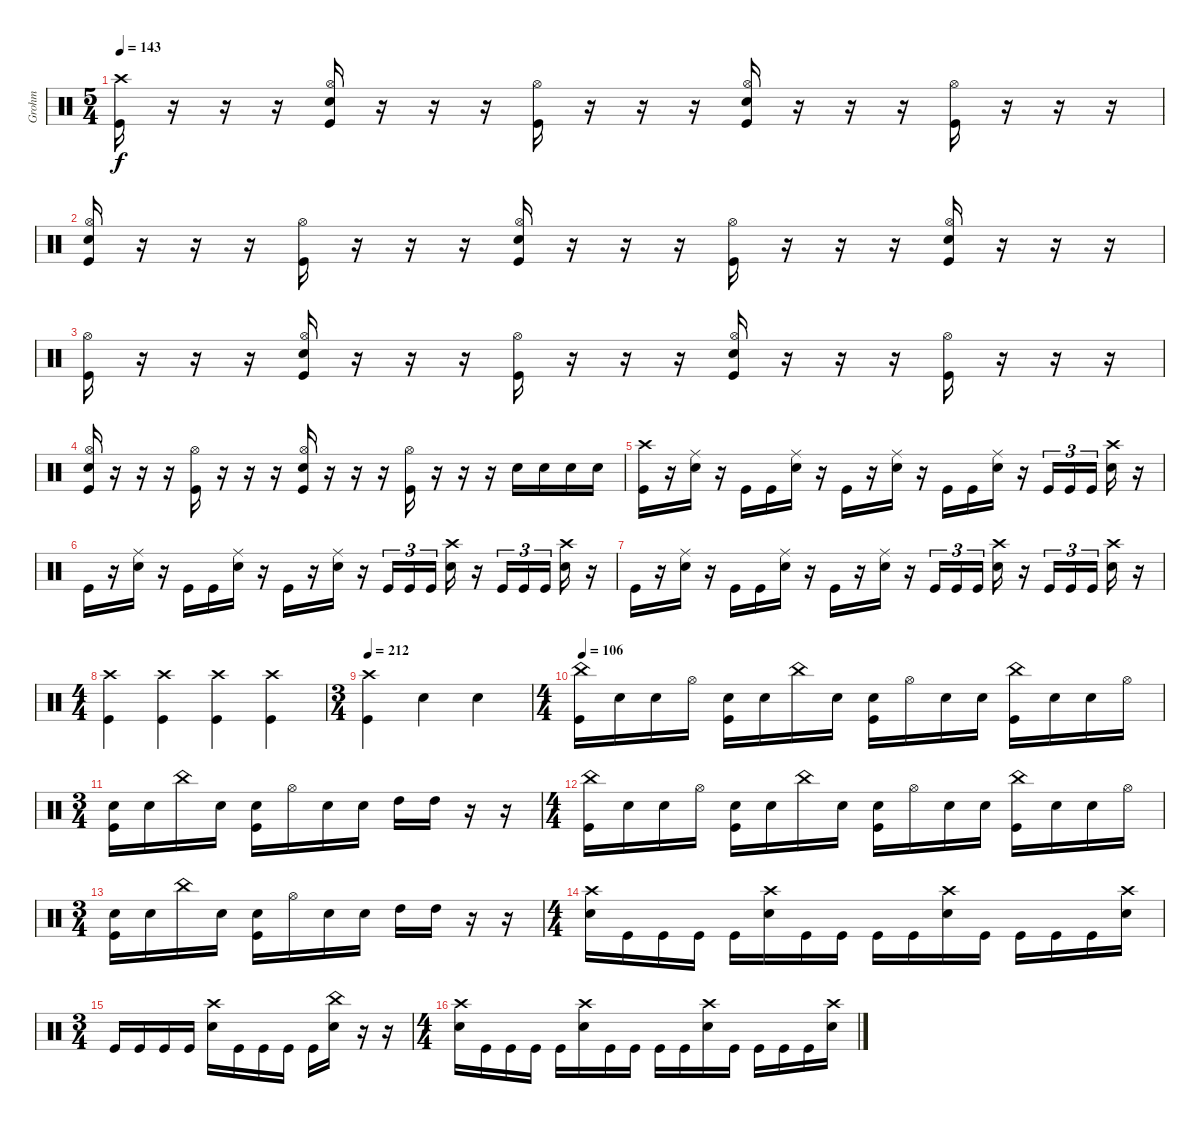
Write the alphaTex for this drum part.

\track ("Grohm" "Grohm") {instrument percussion}
\staff {score}
\articulation defaults
\ts (5 4)
\tempo 143
\clef neutral
\ks c
("Crash high (hit)" "Kick (hit)").16{dy f} r.16 r.16 r.16 ("Hi-Hat (open)" "Snare (hit) 2" "Kick (hit)").16 r.16 r.16 r.16 ("Hi-Hat (open)" "Kick (hit)").16 r.16 r.16 r.16 ("Hi-Hat (open)" "Snare (hit) 2" "Kick (hit)").16 r.16 r.16 r.16 ("Hi-Hat (open)" "Kick (hit)").16 r.16 r.16 r.16 |
("Hi-Hat (open)" "Snare (hit) 2" "Kick (hit)").16 r.16 r.16 r.16 ("Hi-Hat (open)" "Kick (hit)").16 r.16 r.16 r.16 ("Hi-Hat (open)" "Snare (hit) 2" "Kick (hit)").16 r.16 r.16 r.16 ("Hi-Hat (open)" "Kick (hit)").16 r.16 r.16 r.16 ("Hi-Hat (open)" "Snare (hit) 2" "Kick (hit)").16 r.16 r.16 r.16 |
("Hi-Hat (open)" "Kick (hit)").16 r.16 r.16 r.16 ("Hi-Hat (open)" "Snare (hit) 2" "Kick (hit)").16 r.16 r.16 r.16 ("Hi-Hat (open)" "Kick (hit)").16 r.16 r.16 r.16 ("Hi-Hat (open)" "Snare (hit) 2" "Kick (hit)").16 r.16 r.16 r.16 ("Hi-Hat (open)" "Kick (hit)").16 r.16 r.16 r.16 |
("Hi-Hat (open)" "Snare (hit) 2" "Kick (hit)").16 r.16 r.16 r.16 ("Hi-Hat (open)" "Kick (hit)").16 r.16 r.16 r.16 ("Hi-Hat (open)" "Snare (hit) 2" "Kick (hit)").16 r.16 r.16 r.16 ("Hi-Hat (open)" "Kick (hit)").16 r.16 r.16 r.16 "Snare (hit) 2".16 "Snare (hit) 2".16 "Snare (hit) 2".16 "Snare (hit) 2".16 |
("Crash high (hit)" "Kick (hit)").16 r.16 ("Ride (middle)" "Snare (hit) 2").16 r.16 "Kick (hit)".16 "Kick (hit)".16 ("Ride (middle)" "Snare (hit) 2").16 r.16 "Kick (hit)".16 r.16 ("Ride (middle)" "Snare (hit) 2").16 r.16 "Kick (hit)".16 "Kick (hit)".16 ("Ride (middle)" "Snare (hit) 2").16 r.16 "Kick (hit)".16{tu (3 2)} "Kick (hit)".16{tu (3 2)} "Kick (hit)".16{tu (3 2) beam splitsecondary} ("Crash high (hit)" "Snare (hit) 2").16 r.16 |
"Kick (hit)".16 r.16 ("Ride (middle)" "Snare (hit) 2").16 r.16 "Kick (hit)".16 "Kick (hit)".16 ("Ride (middle)" "Snare (hit) 2").16 r.16 "Kick (hit)".16 r.16 ("Ride (middle)" "Snare (hit) 2").16 r.16 "Kick (hit)".16{tu (3 2)} "Kick (hit)".16{tu (3 2)} "Kick (hit)".16{tu (3 2) beam splitsecondary} ("Crash high (hit)" "Snare (hit) 2").16 r.16 "Kick (hit)".16{tu (3 2)} "Kick (hit)".16{tu (3 2)} "Kick (hit)".16{tu (3 2) beam splitsecondary} ("Crash high (hit)" "Snare (hit) 2").16 r.16 |
"Kick (hit)".16 r.16 ("Ride (middle)" "Snare (hit) 2").16 r.16 "Kick (hit)".16 "Kick (hit)".16 ("Ride (middle)" "Snare (hit) 2").16 r.16 "Kick (hit)".16 r.16 ("Ride (middle)" "Snare (hit) 2").16 r.16 "Kick (hit)".16{tu (3 2)} "Kick (hit)".16{tu (3 2)} "Kick (hit)".16{tu (3 2) beam splitsecondary} ("Crash high (hit)" "Snare (hit) 2").16 r.16 "Kick (hit)".16{tu (3 2)} "Kick (hit)".16{tu (3 2)} "Kick (hit)".16{tu (3 2) beam splitsecondary} ("Crash high (hit)" "Snare (hit) 2").16 r.16 |
\ts (4 4)
("Crash high (hit)" "Kick (hit)").4 ("Crash high (hit)" "Kick (hit)").4 ("Crash high (hit)" "Kick (hit)").4 ("Crash high (hit)" "Kick (hit)").4 |
\ts (3 4)
\tempo 212
("Crash high (hit)" "Kick (hit)").4 "Snare (hit) 2".4 "Snare (hit) 2".4 |
\ts (4 4)
\tempo 106
("China (hit)" "Kick (hit)").16 "Snare (hit) 2".16 "Snare (hit) 2".16 "Hi-Hat (open)".16 ("Snare (hit) 2" "Kick (hit)").16 "Snare (hit) 2".16 "China (hit)".16 "Snare (hit) 2".16 ("Snare (hit) 2" "Kick (hit)").16 "Hi-Hat (open)".16 "Snare (hit) 2".16 "Snare (hit) 2".16 ("China (hit)" "Kick (hit)").16 "Snare (hit) 2".16 "Snare (hit) 2".16 "Hi-Hat (open)".16 |
\ts (3 4)
("Snare (hit) 2" "Kick (hit)").16 "Snare (hit) 2".16 "China (hit)".16 "Snare (hit) 2".16 ("Snare (hit) 2" "Kick (hit)").16 "Hi-Hat (open)".16 "Snare (hit) 2".16 "Snare (hit) 2".16 "High Tom (hit)".16 "High Tom (hit)".16 r.16 r.16 |
\ts (4 4)
("China (hit)" "Kick (hit)").16 "Snare (hit) 2".16 "Snare (hit) 2".16 "Hi-Hat (open)".16 ("Snare (hit) 2" "Kick (hit)").16 "Snare (hit) 2".16 "China (hit)".16 "Snare (hit) 2".16 ("Snare (hit) 2" "Kick (hit)").16 "Hi-Hat (open)".16 "Snare (hit) 2".16 "Snare (hit) 2".16 ("China (hit)" "Kick (hit)").16 "Snare (hit) 2".16 "Snare (hit) 2".16 "Hi-Hat (open)".16 |
\ts (3 4)
("Snare (hit) 2" "Kick (hit)").16 "Snare (hit) 2".16 "China (hit)".16 "Snare (hit) 2".16 ("Snare (hit) 2" "Kick (hit)").16 "Hi-Hat (open)".16 "Snare (hit) 2".16 "Snare (hit) 2".16 "High Tom (hit)".16 "High Tom (hit)".16 r.16 r.16 |
\ts (4 4)
("Snare (hit) 2" "Crash high (hit)").16 "Kick (hit)".16 "Kick (hit)".16 "Kick (hit)".16 "Kick (hit)".16 ("Snare (hit) 2" "Crash high (hit)").16 "Kick (hit)".16 "Kick (hit)".16 "Kick (hit)".16 "Kick (hit)".16 ("Snare (hit) 2" "Crash high (hit)").16 "Kick (hit)".16 "Kick (hit)".16 "Kick (hit)".16 "Kick (hit)".16 ("Snare (hit) 2" "Crash high (hit)").16 |
\ts (3 4)
"Kick (hit)".16 "Kick (hit)".16 "Kick (hit)".16 "Kick (hit)".16 ("Snare (hit) 2" "Crash high (hit)").16 "Kick (hit)".16 "Kick (hit)".16 "Kick (hit)".16 "Kick (hit)".16 ("Snare (hit) 2" "China (hit)").16 r.16 r.16 |
\ts (4 4)
("Snare (hit) 2" "Crash high (hit)").16 "Kick (hit)".16 "Kick (hit)".16 "Kick (hit)".16 "Kick (hit)".16 ("Snare (hit) 2" "Crash high (hit)").16 "Kick (hit)".16 "Kick (hit)".16 "Kick (hit)".16 "Kick (hit)".16 ("Snare (hit) 2" "Crash high (hit)").16 "Kick (hit)".16 "Kick (hit)".16 "Kick (hit)".16 "Kick (hit)".16 ("Snare (hit) 2" "Crash high (hit)").16
